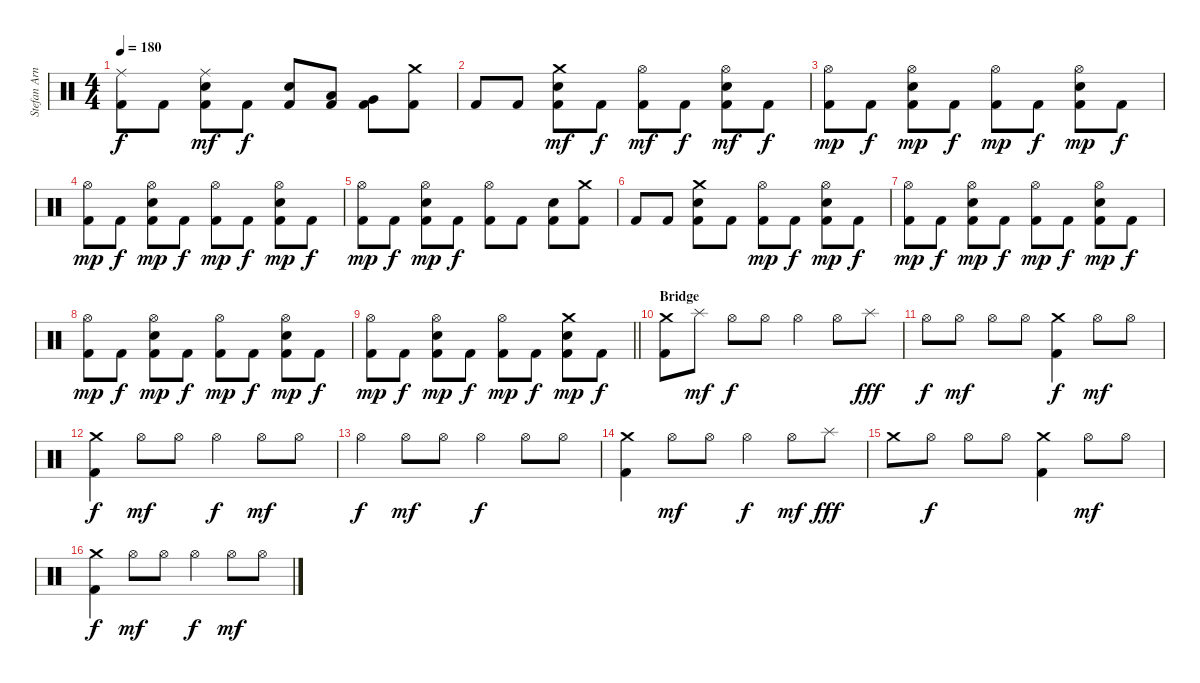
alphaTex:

\track ("Stefan Arnold" "Stefan Arn") {instrument percussion}
\staff {score}
\articulation defaults
\ts (4 4)
\tempo 180
\clef neutral
\ks c
("Ride (middle)" "Kick (hit) 2").8{dy f} "Kick (hit) 2".8 ("Ride (middle)" "Electric Snare (hit)" "Kick (hit) 2").8{dy mf} "Kick (hit) 2".8{dy f} ("Electric Snare (hit)" "Kick (hit) 2").8 ("Low Tom (hit)" "Kick (hit) 2").8 ("Very Low Tom (hit)" "Kick (hit) 2").8 ("Crash medium (hit)" "Kick (hit) 2").8 |
"Kick (hit) 2".8 "Kick (hit) 2".8 ("Crash medium (hit)" "Electric Snare (hit)" "Kick (hit) 2").8{dy mf} "Kick (hit) 2".8{dy f} ("Hi-Hat (open)" "Kick (hit) 2").8{dy mf} "Kick (hit) 2".8{dy f} ("Hi-Hat (open)" "Electric Snare (hit)" "Kick (hit) 2").8{dy mf} "Kick (hit) 2".8{dy f} |
("Hi-Hat (open)" "Kick (hit) 2").8{dy mp} "Kick (hit) 2".8{dy f} ("Hi-Hat (open)" "Electric Snare (hit)" "Kick (hit) 2").8{dy mp} "Kick (hit) 2".8{dy f} ("Hi-Hat (open)" "Kick (hit) 2").8{dy mp} "Kick (hit) 2".8{dy f} ("Hi-Hat (open)" "Electric Snare (hit)" "Kick (hit) 2").8{dy mp} "Kick (hit) 2".8{dy f} |
("Hi-Hat (open)" "Kick (hit) 2").8{dy mp} "Kick (hit) 2".8{dy f} ("Hi-Hat (open)" "Electric Snare (hit)" "Kick (hit) 2").8{dy mp} "Kick (hit) 2".8{dy f} ("Hi-Hat (open)" "Kick (hit) 2").8{dy mp} "Kick (hit) 2".8{dy f} ("Hi-Hat (open)" "Electric Snare (hit)" "Kick (hit) 2").8{dy mp} "Kick (hit) 2".8{dy f} |
("Hi-Hat (open)" "Kick (hit) 2").8{dy mp} "Kick (hit) 2".8{dy f} ("Hi-Hat (open)" "Electric Snare (hit)" "Kick (hit) 2").8{dy mp} "Kick (hit) 2".8{dy f} ("Hi-Hat (open)" "Kick (hit) 2").8 "Kick (hit) 2".8 ("Electric Snare (hit)" "Kick (hit) 2").8 ("Crash medium (hit)" "Kick (hit) 2").8 |
"Kick (hit) 2".8 "Kick (hit) 2".8 ("Crash medium (hit)" "Electric Snare (hit)" "Kick (hit) 2").8 "Kick (hit) 2".8 ("Hi-Hat (open)" "Kick (hit) 2").8{dy mp} "Kick (hit) 2".8{dy f} ("Hi-Hat (open)" "Electric Snare (hit)" "Kick (hit) 2").8{dy mp} "Kick (hit) 2".8{dy f} |
("Hi-Hat (open)" "Kick (hit) 2").8{dy mp} "Kick (hit) 2".8{dy f} ("Hi-Hat (open)" "Electric Snare (hit)" "Kick (hit) 2").8{dy mp} "Kick (hit) 2".8{dy f} ("Hi-Hat (open)" "Kick (hit) 2").8{dy mp} "Kick (hit) 2".8{dy f} ("Hi-Hat (open)" "Electric Snare (hit)" "Kick (hit) 2").8{dy mp} "Kick (hit) 2".8{dy f} |
("Hi-Hat (open)" "Kick (hit) 2").8{dy mp} "Kick (hit) 2".8{dy f} ("Hi-Hat (open)" "Electric Snare (hit)" "Kick (hit) 2").8{dy mp} "Kick (hit) 2".8{dy f} ("Hi-Hat (open)" "Kick (hit) 2").8{dy mp} "Kick (hit) 2".8{dy f} ("Hi-Hat (open)" "Electric Snare (hit)" "Kick (hit) 2").8{dy mp} "Kick (hit) 2".8{dy f} |
\barLineRight lightlight
("Hi-Hat (open)" "Kick (hit) 2").8{dy mp} "Kick (hit) 2".8{dy f} ("Hi-Hat (open)" "Electric Snare (hit)" "Kick (hit) 2").8{dy mp} "Kick (hit) 2".8{dy f} ("Hi-Hat (open)" "Kick (hit) 2").8{dy mp} "Kick (hit) 2".8{dy f} ("Crash medium (hit)" "Electric Snare (hit)" "Kick (hit) 2").8{dy mp} "Kick (hit) 2".8{dy f} |
\section ("" "Bridge")
("Crash medium (hit)" "Kick (hit) 2").8 "Splash (hit)".8{dy mf} "Hi-Hat (open)".8{dy f} "Hi-Hat (open)".8 "Hi-Hat (open)".4 "Hi-Hat (open)".8 "Splash (hit)".8{dy fff} |
"Hi-Hat (open)".8{dy f} "Hi-Hat (open)".8{dy mf} "Hi-Hat (open)".8 "Hi-Hat (open)".8 ("Crash medium (hit)" "Kick (hit) 2").4{dy f} "Hi-Hat (open)".8{dy mf} "Hi-Hat (open)".8 |
("Crash medium (hit)" "Kick (hit) 2").4{dy f} "Hi-Hat (open)".8{dy mf} "Hi-Hat (open)".8 "Hi-Hat (open)".4{dy f} "Hi-Hat (open)".8{dy mf} "Hi-Hat (open)".8 |
"Hi-Hat (open)".4{dy f} "Hi-Hat (open)".8{dy mf} "Hi-Hat (open)".8 "Hi-Hat (open)".4{dy f} "Hi-Hat (open)".8 "Hi-Hat (open)".8 |
("Crash medium (hit)" "Kick (hit) 2").4 "Hi-Hat (open)".8{dy mf} "Hi-Hat (open)".8 "Hi-Hat (open)".4{dy f} "Hi-Hat (open)".8{dy mf} "Splash (hit)".8{dy fff} |
"Crash medium (hit)".8 "Hi-Hat (open)".8{dy f} "Hi-Hat (open)".8 "Hi-Hat (open)".8 ("Crash medium (hit)" "Kick (hit) 2").4 "Hi-Hat (open)".8{dy mf} "Hi-Hat (open)".8 |
("Crash medium (hit)" "Kick (hit) 2").4{dy f} "Hi-Hat (open)".8{dy mf} "Hi-Hat (open)".8 "Hi-Hat (open)".4{dy f} "Hi-Hat (open)".8{dy mf} "Hi-Hat (open)".8
